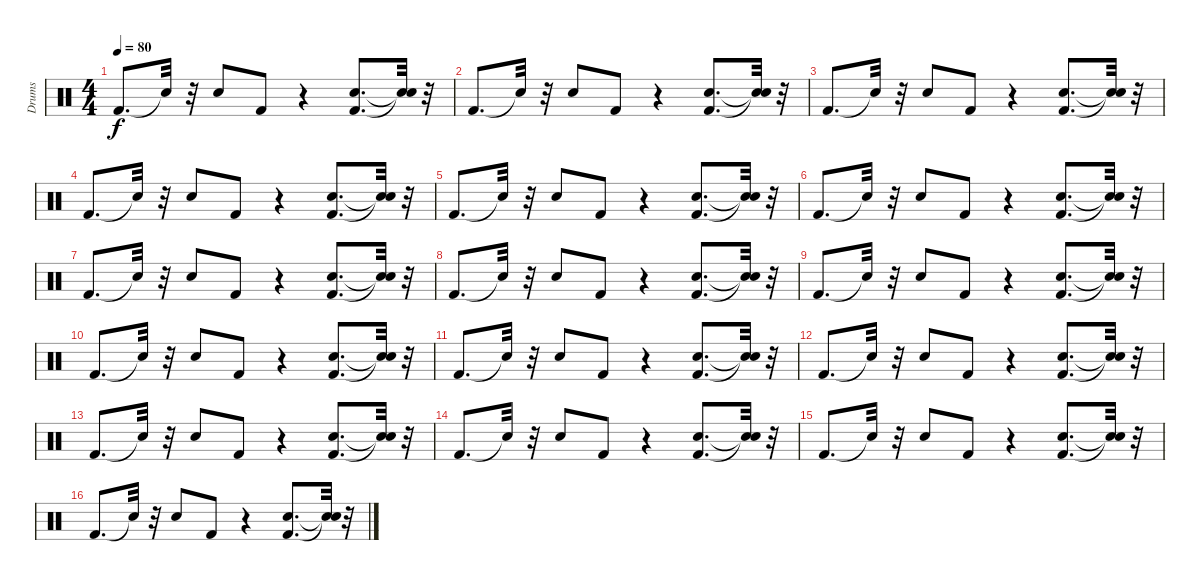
\track ("Drums" "Drums") {instrument percussion}
\staff {score}
\articulation defaults
\ts (4 4)
\tempo 80
\clef neutral
\ks c "Kick (hit) 2".8{d dy f} "Snare (hit)"{t}.32
r.32 "Snare (hit) 2".8 "Kick (hit) 2".8 r.4 ("Kick (hit) 2" "Snare (hit) 2").8{d} ("Snare (hit)"{t} "Snare (hit)"{t}).32 r.32 |
"Kick (hit) 2".8{d} "Snare (hit)"{t}.32 r.32 "Snare (hit) 2".8 "Kick (hit) 2".8 r.4 ("Kick (hit) 2" "Snare (hit) 2").8{d} ("Snare (hit)"{t} "Snare (hit)"{t}).32 r.32 |
"Kick (hit) 2".8{d} "Snare (hit)"{t}.32 r.32 "Snare (hit) 2".8 "Kick (hit) 2".8 r.4 ("Kick (hit) 2" "Snare (hit) 2").8{d} ("Snare (hit)"{t} "Snare (hit)"{t}).32 r.32 |
"Kick (hit) 2".8{d} "Snare (hit)"{t}.32 r.32 "Snare (hit) 2".8 "Kick (hit) 2".8 r.4 ("Kick (hit) 2" "Snare (hit) 2").8{d} ("Snare (hit)"{t} "Snare (hit)"{t}).32 r.32 |
"Kick (hit) 2".8{d} "Snare (hit)"{t}.32 r.32 "Snare (hit) 2".8 "Kick (hit) 2".8 r.4 ("Snare (hit) 2" "Kick (hit) 2").8{d} ("Snare (hit)"{t} "Snare (hit)"{t}).32 r.32 |
"Kick (hit) 2".8{d} "Snare (hit)"{t}.32 r.32 "Snare (hit) 2".8 "Kick (hit) 2".8 r.4 ("Snare (hit) 2" "Kick (hit) 2").8{d} ("Snare (hit)"{t} "Snare (hit)"{t}).32 r.32 |
"Kick (hit) 2".8{d} "Snare (hit)"{t}.32 r.32 "Snare (hit) 2".8 "Kick (hit) 2".8 r.4 ("Kick (hit) 2" "Snare (hit) 2").8{d} ("Snare (hit)"{t} "Snare (hit)"{t}).32 r.32 |
"Kick (hit) 2".8{d} "Snare (hit)"{t}.32 r.32 "Snare (hit) 2".8 "Kick (hit) 2".8 r.4 ("Kick (hit) 2" "Snare (hit) 2").8{d} ("Snare (hit)"{t} "Snare (hit)"{t}).32 r.32 |
"Kick (hit) 2".8{d} "Snare (hit)"{t}.32 r.32 "Snare (hit) 2".8 "Kick (hit) 2".8 r.4 ("Kick (hit) 2" "Snare (hit) 2").8{d} ("Snare (hit)"{t} "Snare (hit)"{t}).32 r.32 |
"Kick (hit) 2".8{d} "Snare (hit)"{t}.32 r.32 "Snare (hit) 2".8 "Kick (hit) 2".8 r.4 ("Kick (hit) 2" "Snare (hit) 2").8{d} ("Snare (hit)"{t} "Snare (hit)"{t}).32 r.32 |
"Kick (hit) 2".8{d} "Snare (hit)"{t}.32 r.32 "Snare (hit) 2".8 "Kick (hit) 2".8 r.4 ("Kick (hit) 2" "Snare (hit) 2").8{d} ("Snare (hit)"{t} "Snare (hit)"{t}).32 r.32 |
"Kick (hit) 2".8{d} "Snare (hit)"{t}.32 r.32 "Snare (hit) 2".8 "Kick (hit) 2".8 r.4 ("Kick (hit) 2" "Snare (hit) 2").8{d} ("Snare (hit)"{t} "Snare (hit)"{t}).32 r.32 |
"Kick (hit) 2".8{d} "Snare (hit)"{t}.32 r.32 "Snare (hit) 2".8 "Kick (hit) 2".8 r.4 ("Kick (hit) 2" "Snare (hit) 2").8{d} ("Snare (hit)"{t} "Snare (hit)"{t}).32 r.32 |
"Kick (hit) 2".8{d} "Snare (hit)"{t}.32 r.32 "Snare (hit) 2".8 "Kick (hit) 2".8 r.4 ("Kick (hit) 2" "Snare (hit) 2").8{d} ("Snare (hit)"{t} "Snare (hit)"{t}).32 r.32 |
"Kick (hit) 2".8{d} "Snare (hit)"{t}.32 r.32 "Snare (hit) 2".8 "Kick (hit) 2".8 r.4 ("Kick (hit) 2" "Snare (hit) 2").8{d} ("Snare (hit)"{t} "Snare (hit)"{t}).32 r.32 |
"Kick (hit) 2".8{d} "Snare (hit)"{t}.32 r.32 "Snare (hit) 2".8 "Kick (hit) 2".8 r.4 ("Kick (hit) 2" "Snare (hit) 2").8{d} ("Snare (hit)"{t} "Snare (hit)"{t}).32 r.32
